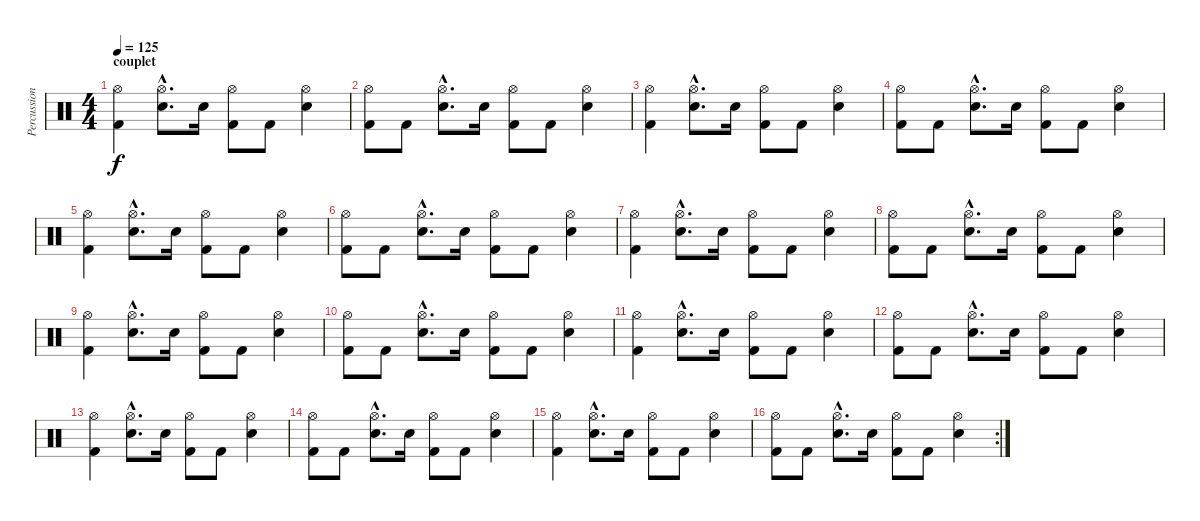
\track ("Percussions" "Percussion") {instrument percussion}
\staff {score}
\articulation defaults
\ts (4 4)
\section ("" "couplet")
\tempo 125
\clef neutral
\ks c
("Hi-Hat (open)" "Kick (hit) 2").4{dy f} ("Hi-Hat (open)"{hac} "Electric Snare (hit)"{hac}).8{d} "Electric Snare (hit)".16 ("Hi-Hat (open)" "Kick (hit) 2").8 "Kick (hit) 2".8 ("Hi-Hat (open)" "Electric Snare (hit)").4 |
("Hi-Hat (open)" "Kick (hit) 2").8 "Kick (hit) 2".8 ("Hi-Hat (open)"{hac} "Electric Snare (hit)"{hac}).8{d} "Electric Snare (hit)".16 ("Hi-Hat (open)" "Kick (hit) 2").8 "Kick (hit) 2".8 ("Hi-Hat (open)" "Electric Snare (hit)").4 |
("Hi-Hat (open)" "Kick (hit) 2").4 ("Hi-Hat (open)"{hac} "Electric Snare (hit)"{hac}).8{d} "Electric Snare (hit)".16 ("Hi-Hat (open)" "Kick (hit) 2").8 "Kick (hit) 2".8 ("Hi-Hat (open)" "Electric Snare (hit)").4 |
("Hi-Hat (open)" "Kick (hit) 2").8 "Kick (hit) 2".8 ("Hi-Hat (open)"{hac} "Electric Snare (hit)"{hac}).8{d} "Electric Snare (hit)".16 ("Hi-Hat (open)" "Kick (hit) 2").8 "Kick (hit) 2".8 ("Hi-Hat (open)" "Electric Snare (hit)").4 |
("Hi-Hat (open)" "Kick (hit) 2").4 ("Hi-Hat (open)"{hac} "Electric Snare (hit)"{hac}).8{d} "Electric Snare (hit)".16 ("Hi-Hat (open)" "Kick (hit) 2").8 "Kick (hit) 2".8 ("Hi-Hat (open)" "Electric Snare (hit)").4 |
("Hi-Hat (open)" "Kick (hit) 2").8 "Kick (hit) 2".8 ("Hi-Hat (open)"{hac} "Electric Snare (hit)"{hac}).8{d} "Electric Snare (hit)".16 ("Hi-Hat (open)" "Kick (hit) 2").8 "Kick (hit) 2".8 ("Hi-Hat (open)" "Electric Snare (hit)").4 |
("Hi-Hat (open)" "Kick (hit) 2").4 ("Hi-Hat (open)"{hac} "Electric Snare (hit)"{hac}).8{d} "Electric Snare (hit)".16 ("Hi-Hat (open)" "Kick (hit) 2").8 "Kick (hit) 2".8 ("Hi-Hat (open)" "Electric Snare (hit)").4 |
("Hi-Hat (open)" "Kick (hit) 2").8 "Kick (hit) 2".8 ("Hi-Hat (open)"{hac} "Electric Snare (hit)"{hac}).8{d} "Electric Snare (hit)".16 ("Hi-Hat (open)" "Kick (hit) 2").8 "Kick (hit) 2".8 ("Hi-Hat (open)" "Electric Snare (hit)").4 |
("Hi-Hat (open)" "Kick (hit) 2").4 ("Hi-Hat (open)"{hac} "Electric Snare (hit)"{hac}).8{d} "Electric Snare (hit)".16 ("Hi-Hat (open)" "Kick (hit) 2").8 "Kick (hit) 2".8 ("Hi-Hat (open)" "Electric Snare (hit)").4 |
("Hi-Hat (open)" "Kick (hit) 2").8 "Kick (hit) 2".8 ("Hi-Hat (open)"{hac} "Electric Snare (hit)"{hac}).8{d} "Electric Snare (hit)".16 ("Hi-Hat (open)" "Kick (hit) 2").8 "Kick (hit) 2".8 ("Hi-Hat (open)" "Electric Snare (hit)").4 |
("Hi-Hat (open)" "Kick (hit) 2").4 ("Hi-Hat (open)"{hac} "Electric Snare (hit)"{hac}).8{d} "Electric Snare (hit)".16 ("Hi-Hat (open)" "Kick (hit) 2").8 "Kick (hit) 2".8 ("Hi-Hat (open)" "Electric Snare (hit)").4 |
("Hi-Hat (open)" "Kick (hit) 2").8 "Kick (hit) 2".8 ("Hi-Hat (open)"{hac} "Electric Snare (hit)"{hac}).8{d} "Electric Snare (hit)".16 ("Hi-Hat (open)" "Kick (hit) 2").8 "Kick (hit) 2".8 ("Hi-Hat (open)" "Electric Snare (hit)").4 |
("Hi-Hat (open)" "Kick (hit) 2").4 ("Hi-Hat (open)"{hac} "Electric Snare (hit)"{hac}).8{d} "Electric Snare (hit)".16 ("Hi-Hat (open)" "Kick (hit) 2").8 "Kick (hit) 2".8 ("Hi-Hat (open)" "Electric Snare (hit)").4 |
("Hi-Hat (open)" "Kick (hit) 2").8 "Kick (hit) 2".8 ("Hi-Hat (open)"{hac} "Electric Snare (hit)"{hac}).8{d} "Electric Snare (hit)".16 ("Hi-Hat (open)" "Kick (hit) 2").8 "Kick (hit) 2".8 ("Hi-Hat (open)" "Electric Snare (hit)").4 |
("Hi-Hat (open)" "Kick (hit) 2").4 ("Hi-Hat (open)"{hac} "Electric Snare (hit)"{hac}).8{d} "Electric Snare (hit)".16 ("Hi-Hat (open)" "Kick (hit) 2").8 "Kick (hit) 2".8 ("Hi-Hat (open)" "Electric Snare (hit)").4 |
\rc 2
("Hi-Hat (open)" "Kick (hit) 2").8 "Kick (hit) 2".8 ("Hi-Hat (open)"{hac} "Electric Snare (hit)"{hac}).8{d} "Electric Snare (hit)".16 ("Hi-Hat (open)" "Kick (hit) 2").8 "Kick (hit) 2".8 ("Hi-Hat (open)" "Electric Snare (hit)").4
